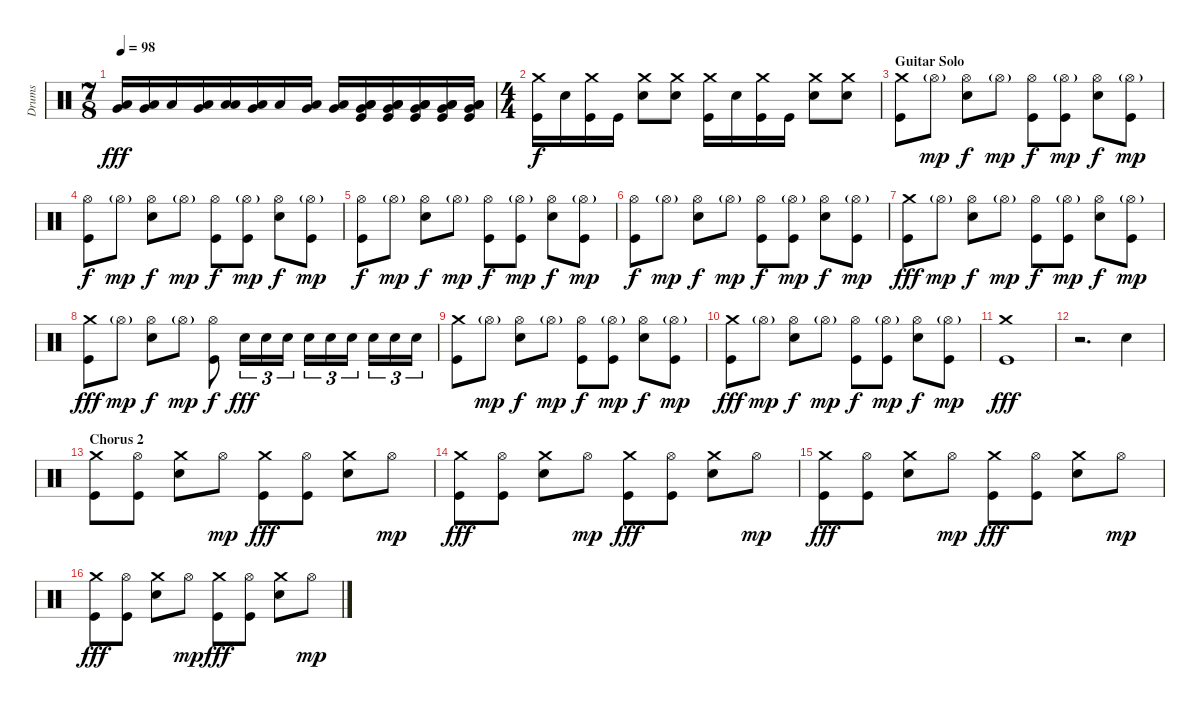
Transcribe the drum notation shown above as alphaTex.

\track ("Drums" "Drums") {instrument percussion}
\staff {score}
\articulation defaults
\ts (7 8)
\tempo 98
\clef neutral
\ks c
("Very Low Tom (hit)" "Low Floor Tom (hit)").16{dy fff} ("Very Low Tom (hit)" "Low Floor Tom (hit)").16 "Low Floor Tom (hit)".16 ("Very Low Tom (hit)" "Low Floor Tom (hit)").16 ("Low Tom (hit)" "Low Floor Tom (hit)").16 ("Very Low Tom (hit)" "Low Floor Tom (hit)").16 "Low Floor Tom (hit)".16 ("Very Low Tom (hit)" "Low Floor Tom (hit)").16 ("Very Low Tom (hit)" "Low Floor Tom (hit)").16 ("Low Tom (hit)" "Very Low Tom (hit)" "Low Floor Tom (hit)" "Kick (hit)").16 ("Low Tom (hit)" "Very Low Tom (hit)" "Low Floor Tom (hit)" "Kick (hit)").16 ("Low Tom (hit)" "Very Low Tom (hit)" "Low Floor Tom (hit)" "Kick (hit)").16 ("Low Tom (hit)" "Very Low Tom (hit)" "Low Floor Tom (hit)" "Kick (hit)").16 ("Low Tom (hit)" "Very Low Tom (hit)" "Low Floor Tom (hit)" "Kick (hit)").16 |
\ts (4 4)
("Crash medium (hit)" "Kick (hit)").16{dy f} "Electric Snare (hit)".16 ("Crash medium (hit)" "Kick (hit)").16 "Kick (hit)".16 ("Crash medium (hit)" "Electric Snare (hit)").8 ("Crash medium (hit)" "Electric Snare (hit)").8 ("Crash medium (hit)" "Kick (hit)").16 "Electric Snare (hit)".16 ("Crash medium (hit)" "Kick (hit)").16 "Kick (hit)".16 ("Crash medium (hit)" "Electric Snare (hit)").8 ("Crash medium (hit)" "Electric Snare (hit)").8 |
\section ("" "Guitar Solo")
("Crash medium (hit)" "Kick (hit)").8 "Hi-Hat (open)"{g}.8{dy mp} ("Hi-Hat (open)" "Electric Snare (hit)").8{dy f} "Hi-Hat (open)"{g}.8{dy mp} ("Hi-Hat (open)" "Kick (hit)").8{dy f} ("Hi-Hat (open)"{g} "Kick (hit)").8{dy mp} ("Hi-Hat (open)" "Electric Snare (hit)").8{dy f} ("Hi-Hat (open)"{g} "Kick (hit)").8{dy mp} |
("Hi-Hat (open)" "Kick (hit)").8{dy f} "Hi-Hat (open)"{g}.8{dy mp} ("Hi-Hat (open)" "Electric Snare (hit)").8{dy f} "Hi-Hat (open)"{g}.8{dy mp} ("Hi-Hat (open)" "Kick (hit)").8{dy f} ("Hi-Hat (open)"{g} "Kick (hit)").8{dy mp} ("Hi-Hat (open)" "Electric Snare (hit)").8{dy f} ("Hi-Hat (open)"{g} "Kick (hit)").8{dy mp} |
("Hi-Hat (open)" "Kick (hit)").8{dy f} "Hi-Hat (open)"{g}.8{dy mp} ("Hi-Hat (open)" "Electric Snare (hit)").8{dy f} "Hi-Hat (open)"{g}.8{dy mp} ("Hi-Hat (open)" "Kick (hit)").8{dy f} ("Hi-Hat (open)"{g} "Kick (hit)").8{dy mp} ("Hi-Hat (open)" "Electric Snare (hit)").8{dy f} ("Hi-Hat (open)"{g} "Kick (hit)").8{dy mp} |
("Hi-Hat (open)" "Kick (hit)").8{dy f} "Hi-Hat (open)"{g}.8{dy mp} ("Hi-Hat (open)" "Electric Snare (hit)").8{dy f} "Hi-Hat (open)"{g}.8{dy mp} ("Hi-Hat (open)" "Kick (hit)").8{dy f} ("Hi-Hat (open)"{g} "Kick (hit)").8{dy mp} ("Hi-Hat (open)" "Electric Snare (hit)").8{dy f} ("Hi-Hat (open)"{g} "Kick (hit)").8{dy mp} |
("Crash medium (hit)" "Kick (hit)").8{dy fff} "Hi-Hat (open)"{g}.8{dy mp} ("Hi-Hat (open)" "Electric Snare (hit)").8{dy f} "Hi-Hat (open)"{g}.8{dy mp} ("Hi-Hat (open)" "Kick (hit)").8{dy f} ("Hi-Hat (open)"{g} "Kick (hit)").8{dy mp} ("Hi-Hat (open)" "Electric Snare (hit)").8{dy f} ("Hi-Hat (open)"{g} "Kick (hit)").8{dy mp} |
("Crash medium (hit)" "Kick (hit)").8{dy fff} "Hi-Hat (open)"{g}.8{dy mp} ("Hi-Hat (open)" "Electric Snare (hit)").8{dy f} "Hi-Hat (open)"{g}.8{dy mp} ("Hi-Hat (open)" "Kick (hit)").8{dy f} "Electric Snare (hit)".16{tu (3 2) dy fff} "Electric Snare (hit)".16{tu (3 2)} "Electric Snare (hit)".16{tu (3 2)} "Electric Snare (hit)".16{tu (3 2)} "Electric Snare (hit)".16{tu (3 2)} "Electric Snare (hit)".16{tu (3 2)} "Electric Snare (hit)".16{tu (3 2)} "Electric Snare (hit)".16{tu (3 2)} "Electric Snare (hit)".16{tu (3 2)} |
("Crash medium (hit)" "Kick (hit)").8 "Hi-Hat (open)"{g}.8{dy mp} ("Hi-Hat (open)" "Electric Snare (hit)").8{dy f} "Hi-Hat (open)"{g}.8{dy mp} ("Hi-Hat (open)" "Kick (hit)").8{dy f} ("Hi-Hat (open)"{g} "Kick (hit)").8{dy mp} ("Hi-Hat (open)" "Electric Snare (hit)").8{dy f} ("Hi-Hat (open)"{g} "Kick (hit)").8{dy mp} |
("Crash medium (hit)" "Kick (hit)").8{dy fff} "Hi-Hat (open)"{g}.8{dy mp} ("Hi-Hat (open)" "Electric Snare (hit)").8{dy f} "Hi-Hat (open)"{g}.8{dy mp} ("Hi-Hat (open)" "Kick (hit)").8{dy f} ("Hi-Hat (open)"{g} "Kick (hit)").8{dy mp} ("Hi-Hat (open)" "Electric Snare (hit)").8{dy f} ("Hi-Hat (open)"{g} "Kick (hit)").8{dy mp} |
("Crash medium (hit)" "Kick (hit)").1{dy fff} |
r.2{d} "Snare (hit) 2".4 |
\section ("" "Chorus 2")
("Crash medium (hit)" "Kick (hit)").8 ("Hi-Hat (open)" "Kick (hit)").8 ("Crash medium (hit)" "Snare (hit) 2").8 "Hi-Hat (open)".8{dy mp} ("Crash medium (hit)" "Kick (hit)").8{dy fff} ("Hi-Hat (open)" "Kick (hit)").8 ("Crash medium (hit)" "Snare (hit) 2").8 "Hi-Hat (open)".8{dy mp} |
("Crash medium (hit)" "Kick (hit)").8{dy fff} ("Hi-Hat (open)" "Kick (hit)").8 ("Crash medium (hit)" "Snare (hit) 2").8 "Hi-Hat (open)".8{dy mp} ("Crash medium (hit)" "Kick (hit)").8{dy fff} ("Hi-Hat (open)" "Kick (hit)").8 ("Crash medium (hit)" "Snare (hit) 2").8 "Hi-Hat (open)".8{dy mp} |
("Crash medium (hit)" "Kick (hit)").8{dy fff} ("Hi-Hat (open)" "Kick (hit)").8 ("Crash medium (hit)" "Snare (hit) 2").8 "Hi-Hat (open)".8{dy mp} ("Crash medium (hit)" "Kick (hit)").8{dy fff} ("Hi-Hat (open)" "Kick (hit)").8 ("Crash medium (hit)" "Snare (hit) 2").8 "Hi-Hat (open)".8{dy mp} |
("Crash medium (hit)" "Kick (hit)").8{dy fff} ("Hi-Hat (open)" "Kick (hit)").8 ("Crash medium (hit)" "Snare (hit) 2").8 "Hi-Hat (open)".8{dy mp} ("Crash medium (hit)" "Kick (hit)").8{dy fff} ("Hi-Hat (open)" "Kick (hit)").8 ("Crash medium (hit)" "Snare (hit) 2").8 "Hi-Hat (open)".8{dy mp}
